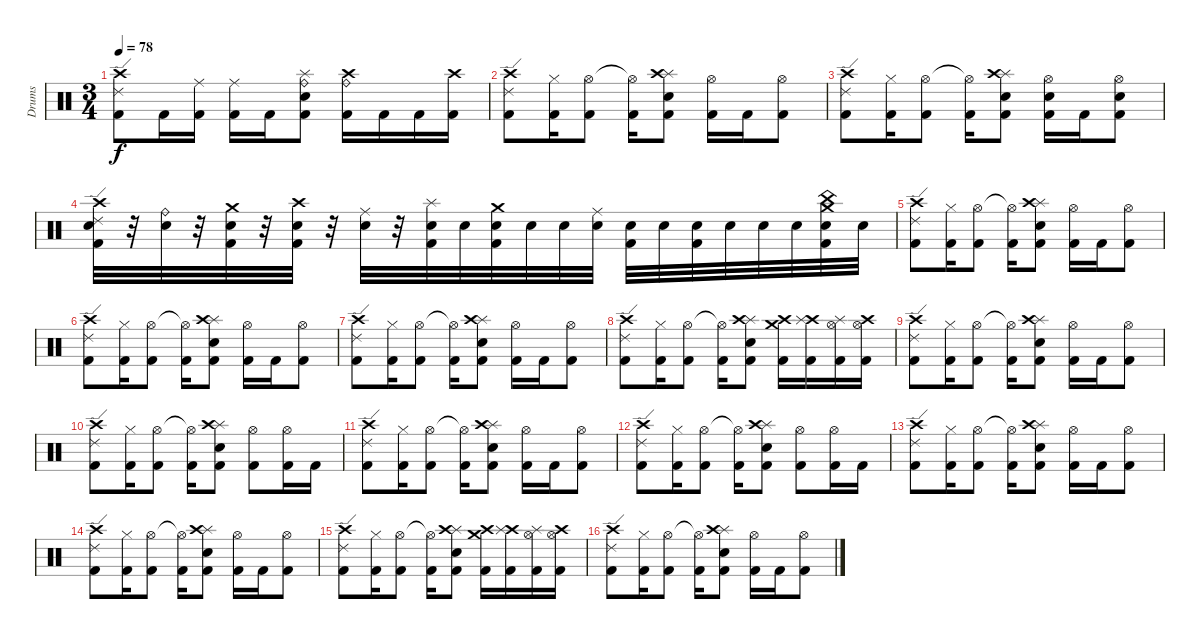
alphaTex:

\track ("Drums" "Drums") {instrument percussion}
\staff {score}
\articulation defaults
\ts (3 4)
\tempo 78
\clef neutral
\ks c
("Crash high (hit)" "Ride (edge) 2" "Kick (hit) 2").8{dy f} "Kick (hit) 2".16 ("Ride (middle)" "Kick (hit) 2").16 ("Ride (middle)" "Kick (hit) 2").16 "Kick (hit) 2".16 ("Ride (bell)" "Splash (hit)" "Snare (hit) 2" "Kick (hit) 2").8 ("Ride (bell)" "Crash high (hit)" "Kick (hit) 2").16 "Kick (hit) 2".16 "Kick (hit) 2".16 ("Crash high (hit)" "Kick (hit) 2").16 |
("Crash high (hit)" "Ride (edge) 2" "Kick (hit) 2").8 ("Hi-Hat (closed)" "Kick (hit) 2").16 ("Hi-Hat (open)" "Kick (hit) 2").8 ("Hi-Hat (open)"{t} "Kick (hit) 2").16 ("Splash (hit)" "Crash high (hit)" "Snare (hit) 2" "Kick (hit) 2").8 ("Hi-Hat (open)" "Kick (hit) 2").16 "Kick (hit) 2".16 ("Hi-Hat (open)" "Kick (hit) 2").8 |
("Crash high (hit)" "Ride (edge) 2" "Kick (hit) 2").8 ("Hi-Hat (closed)" "Kick (hit) 2").16 ("Hi-Hat (open)" "Kick (hit) 2").8 ("Hi-Hat (open)"{t} "Kick (hit) 2").16 ("Splash (hit)" "Crash high (hit)" "Snare (hit) 2" "Kick (hit) 2").8 ("Hi-Hat (open)" "Snare (hit) 2" "Kick (hit) 2").16 "Kick (hit) 2".16 ("Hi-Hat (open)" "Snare (hit) 2" "Kick (hit) 2").8 |
("Crash high (hit)" "Ride (edge) 2" "Snare (hit) 2" "Kick (hit) 2").32 r.32 ("Ride (bell)" "Snare (hit) 2").32 r.32 ("Crash medium (hit)" "Snare (hit) 2" "Kick (hit) 2").32 r.32 ("Crash high (hit)" "Snare (hit) 2" "Kick (hit) 2").32 r.32 ("Ride (middle)" "Snare (hit) 2").32 r.32 ("Splash (hit)" "Snare (hit) 2" "Kick (hit) 2").32 "Snare (hit) 2".32 ("Crash medium (hit)" "Snare (hit) 2" "Kick (hit) 2").32 "Snare (hit) 2".32 "Snare (hit) 2".32 ("Ride (middle)" "Snare (hit) 2").32 ("Snare (hit) 2" "Kick (hit) 2").32 "Snare (hit) 2".32 ("Snare (hit) 2" "Kick (hit) 2").32 "Snare (hit) 2".32 "Snare (hit) 2".32 "Snare (hit) 2".32 ("China (hit)" "Crash medium (hit)" "Snare (hit) 2" "Kick (hit) 2").32 "Snare (hit) 2".32 |
("Crash high (hit)" "Ride (edge) 2" "Kick (hit) 2").8 ("Hi-Hat (closed)" "Kick (hit) 2").16 ("Hi-Hat (open)" "Kick (hit) 2").8 ("Hi-Hat (open)"{t} "Kick (hit) 2").16 ("Splash (hit)" "Crash high (hit)" "Snare (hit) 2" "Kick (hit) 2").8 ("Hi-Hat (open)" "Kick (hit) 2").16 "Kick (hit) 2".16 ("Hi-Hat (open)" "Kick (hit) 2").8 |
("Crash high (hit)" "Ride (edge) 2" "Kick (hit) 2").8 ("Hi-Hat (closed)" "Kick (hit) 2").16 ("Hi-Hat (open)" "Kick (hit) 2").8 ("Hi-Hat (open)"{t} "Kick (hit) 2").16 ("Splash (hit)" "Crash high (hit)" "Snare (hit) 2" "Kick (hit) 2").8 ("Hi-Hat (open)" "Kick (hit) 2").16 "Kick (hit) 2".16 ("Hi-Hat (open)" "Kick (hit) 2").8 |
("Crash high (hit)" "Ride (edge) 2" "Kick (hit) 2").8 ("Hi-Hat (closed)" "Kick (hit) 2").16 ("Hi-Hat (open)" "Kick (hit) 2").8 ("Hi-Hat (open)"{t} "Kick (hit) 2").16 ("Splash (hit)" "Crash high (hit)" "Snare (hit) 2" "Kick (hit) 2").8 ("Hi-Hat (open)" "Kick (hit) 2").16 "Kick (hit) 2".16 ("Hi-Hat (open)" "Kick (hit) 2").8 |
("Crash high (hit)" "Ride (edge) 2" "Kick (hit) 2").8 ("Hi-Hat (closed)" "Kick (hit) 2").16 ("Hi-Hat (open)" "Kick (hit) 2").8 ("Hi-Hat (open)"{t} "Kick (hit) 2").16 ("Splash (hit)" "Crash high (hit)" "Snare (hit) 2" "Kick (hit) 2").8 ("Crash medium (hit)" "Crash high (hit)" "Kick (hit) 2").16 ("Crash high (hit)" "Splash (hit)" "Kick (hit) 2").16 ("Hi-Hat (open)" "Splash (hit)" "Kick (hit) 2").16 ("Hi-Hat (open)" "Crash high (hit)" "Kick (hit) 2").16 |
("Crash high (hit)" "Ride (edge) 2" "Kick (hit) 2").8 ("Hi-Hat (closed)" "Kick (hit) 2").16 ("Hi-Hat (open)" "Kick (hit) 2").8 ("Hi-Hat (open)"{t} "Kick (hit) 2").16 ("Splash (hit)" "Crash high (hit)" "Snare (hit) 2" "Kick (hit) 2").8 ("Hi-Hat (open)" "Kick (hit) 2").16 "Kick (hit) 2".16 ("Hi-Hat (open)" "Kick (hit) 2").8 |
("Crash high (hit)" "Ride (edge) 2" "Kick (hit) 2").8 ("Hi-Hat (closed)" "Kick (hit) 2").16 ("Hi-Hat (open)" "Kick (hit) 2").8 ("Hi-Hat (open)"{t} "Kick (hit) 2").16 ("Splash (hit)" "Crash high (hit)" "Snare (hit) 2" "Kick (hit) 2").8 ("Hi-Hat (open)" "Kick (hit) 2").8 ("Hi-Hat (open)" "Kick (hit) 2").16 "Kick (hit) 2".16 |
("Crash high (hit)" "Ride (edge) 2" "Kick (hit) 2").8 ("Hi-Hat (closed)" "Kick (hit) 2").16 ("Hi-Hat (open)" "Kick (hit) 2").8 ("Hi-Hat (open)"{t} "Kick (hit) 2").16 ("Splash (hit)" "Crash high (hit)" "Snare (hit) 2" "Kick (hit) 2").8 ("Hi-Hat (open)" "Kick (hit) 2").16 "Kick (hit) 2".16 ("Hi-Hat (open)" "Kick (hit) 2").8 |
("Crash high (hit)" "Ride (edge) 2" "Kick (hit) 2").8 ("Hi-Hat (closed)" "Kick (hit) 2").16 ("Hi-Hat (open)" "Kick (hit) 2").8 ("Hi-Hat (open)"{t} "Kick (hit) 2").16 ("Splash (hit)" "Crash high (hit)" "Snare (hit) 2" "Kick (hit) 2").8 ("Hi-Hat (open)" "Kick (hit) 2").8 ("Hi-Hat (open)" "Kick (hit) 2").16 "Kick (hit) 2".16 |
("Crash high (hit)" "Ride (edge) 2" "Kick (hit) 2").8 ("Hi-Hat (closed)" "Kick (hit) 2").16 ("Hi-Hat (open)" "Kick (hit) 2").8 ("Hi-Hat (open)"{t} "Kick (hit) 2").16 ("Splash (hit)" "Crash high (hit)" "Snare (hit) 2" "Kick (hit) 2").8 ("Hi-Hat (open)" "Kick (hit) 2").16 "Kick (hit) 2".16 ("Hi-Hat (open)" "Kick (hit) 2").8 |
("Crash high (hit)" "Ride (edge) 2" "Kick (hit) 2").8 ("Hi-Hat (closed)" "Kick (hit) 2").16 ("Hi-Hat (open)" "Kick (hit) 2").8 ("Hi-Hat (open)"{t} "Kick (hit) 2").16 ("Splash (hit)" "Crash high (hit)" "Snare (hit) 2" "Kick (hit) 2").8 ("Hi-Hat (open)" "Kick (hit) 2").16 "Kick (hit) 2".16 ("Hi-Hat (open)" "Kick (hit) 2").8 |
("Crash high (hit)" "Ride (edge) 2" "Kick (hit) 2").8 ("Hi-Hat (closed)" "Kick (hit) 2").16 ("Hi-Hat (open)" "Kick (hit) 2").8 ("Hi-Hat (open)"{t} "Kick (hit) 2").16 ("Splash (hit)" "Crash high (hit)" "Snare (hit) 2" "Kick (hit) 2").8 ("Crash medium (hit)" "Crash high (hit)" "Kick (hit) 2").16 ("Crash high (hit)" "Splash (hit)" "Kick (hit) 2").16 ("Hi-Hat (open)" "Splash (hit)" "Kick (hit) 2").16 ("Hi-Hat (open)" "Crash high (hit)" "Kick (hit) 2").16 |
("Crash high (hit)" "Ride (edge) 2" "Kick (hit) 2").8 ("Hi-Hat (closed)" "Kick (hit) 2").16 ("Hi-Hat (open)" "Kick (hit) 2").8 ("Hi-Hat (open)"{t} "Kick (hit) 2").16 ("Splash (hit)" "Crash high (hit)" "Snare (hit) 2" "Kick (hit) 2").8 ("Hi-Hat (open)" "Kick (hit) 2").16 "Kick (hit) 2".16 ("Hi-Hat (open)" "Kick (hit) 2").8
